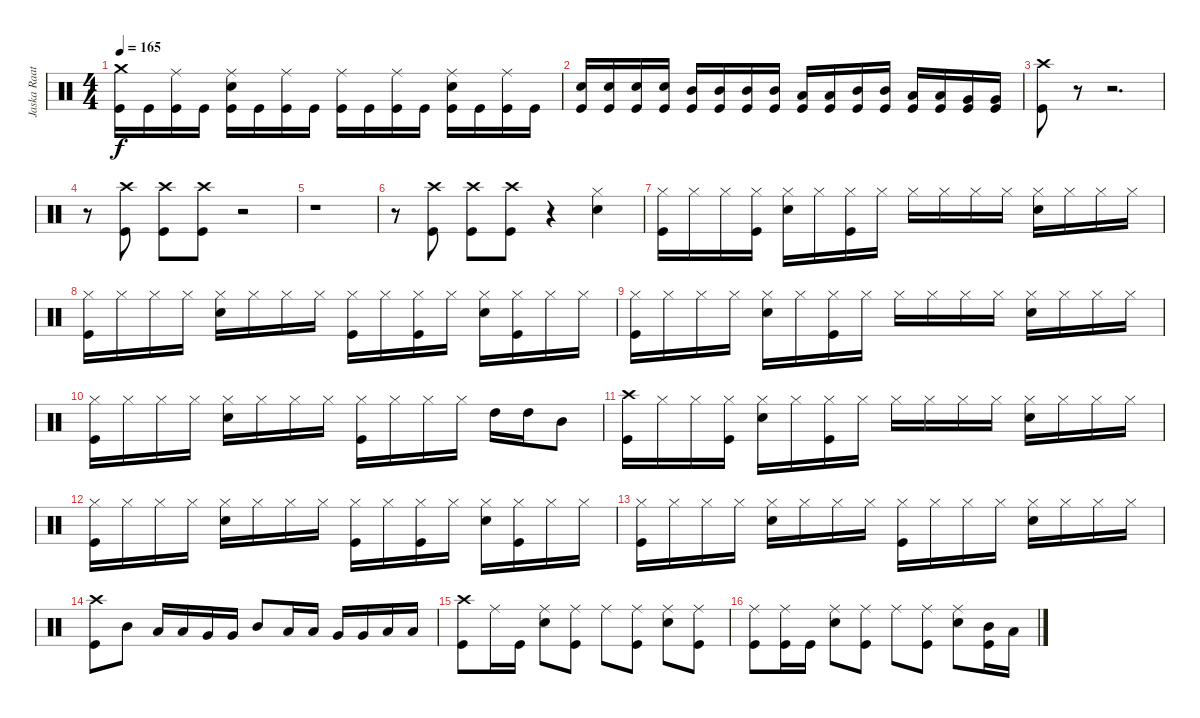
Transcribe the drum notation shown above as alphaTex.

\track ("Jaska Raatikainen" "Jaska Raat") {instrument percussion}
\staff {score}
\articulation defaults
\ts (4 4)
\tempo 165
\clef neutral
\ks c
("Crash medium (hit)" "Kick (hit)").16{dy f} "Kick (hit)".16 ("Ride (middle)" "Kick (hit)").16 "Kick (hit)".16 ("Ride (middle)" "Electric Snare (hit)" "Kick (hit)").16 "Kick (hit)".16 ("Ride (middle)" "Kick (hit)").16 "Kick (hit)".16 ("Ride (middle)" "Kick (hit)").16 "Kick (hit)".16 ("Ride (middle)" "Kick (hit)").16 "Kick (hit)".16 ("Ride (middle)" "Electric Snare (hit)" "Kick (hit)").16 "Kick (hit)".16 ("Ride (middle)" "Kick (hit)").16 "Kick (hit)".16 |
("Electric Snare (hit)" "Kick (hit)").16 ("Electric Snare (hit)" "Kick (hit)").16 ("Electric Snare (hit)" "Kick (hit)").16 ("Electric Snare (hit)" "Kick (hit)").16 ("Mid Tom (hit)" "Kick (hit)").16 ("Mid Tom (hit)" "Kick (hit)").16 ("Mid Tom (hit)" "Kick (hit)").16 ("Mid Tom (hit)" "Kick (hit)").16 ("Low Tom (hit)" "Kick (hit)").16 ("Low Tom (hit)" "Kick (hit)").16 ("Mid Tom (hit)" "Kick (hit)").16 ("Mid Tom (hit)" "Kick (hit)").16 ("Low Tom (hit)" "Kick (hit)").16 ("Low Tom (hit)" "Kick (hit)").16 ("Very Low Tom (hit)" "Kick (hit)").16 ("Very Low Tom (hit)" "Kick (hit)").16 |
("Crash high (hit)" "Kick (hit)").8 r.8 r.2{d} |
r.8 ("Crash high (hit)" "Kick (hit)").8 ("Crash high (hit)" "Kick (hit)").8 ("Crash high (hit)" "Kick (hit)").8 r.2 |
r.1 |
r.8 ("Crash high (hit)" "Kick (hit)").8 ("Crash high (hit)" "Kick (hit)").8 ("Crash high (hit)" "Kick (hit)").8 r.4 ("Hi-Hat (closed)" "Electric Snare (hit)").4 |
("Hi-Hat (closed)" "Kick (hit)").16 "Hi-Hat (closed)".16 "Hi-Hat (closed)".16 ("Hi-Hat (closed)" "Kick (hit)").16 ("Hi-Hat (closed)" "Electric Snare (hit)").16 "Hi-Hat (closed)".16 ("Hi-Hat (closed)" "Kick (hit)").16 "Hi-Hat (closed)".16 "Hi-Hat (closed)".16 "Hi-Hat (closed)".16 "Hi-Hat (closed)".16 "Hi-Hat (closed)".16 ("Hi-Hat (closed)" "Electric Snare (hit)").16 "Hi-Hat (closed)".16 "Hi-Hat (closed)".16 "Hi-Hat (closed)".16 |
("Hi-Hat (closed)" "Kick (hit)").16 "Hi-Hat (closed)".16 "Hi-Hat (closed)".16 "Hi-Hat (closed)".16 ("Hi-Hat (closed)" "Electric Snare (hit)").16 "Hi-Hat (closed)".16 "Hi-Hat (closed)".16 "Hi-Hat (closed)".16 ("Hi-Hat (closed)" "Kick (hit)").16 "Hi-Hat (closed)".16 ("Hi-Hat (closed)" "Kick (hit)").16 "Hi-Hat (closed)".16 ("Hi-Hat (closed)" "Electric Snare (hit)").16 ("Hi-Hat (closed)" "Kick (hit)").16 "Hi-Hat (closed)".16 "Hi-Hat (closed)".16 |
("Hi-Hat (closed)" "Kick (hit)").16 "Hi-Hat (closed)".16 "Hi-Hat (closed)".16 "Hi-Hat (closed)".16 ("Hi-Hat (closed)" "Electric Snare (hit)").16 "Hi-Hat (closed)".16 ("Hi-Hat (closed)" "Kick (hit)").16 "Hi-Hat (closed)".16 "Hi-Hat (closed)".16 "Hi-Hat (closed)".16 "Hi-Hat (closed)".16 "Hi-Hat (closed)".16 ("Hi-Hat (closed)" "Electric Snare (hit)").16 "Hi-Hat (closed)".16 "Hi-Hat (closed)".16 "Hi-Hat (closed)".16 |
("Hi-Hat (closed)" "Kick (hit)").16 "Hi-Hat (closed)".16 "Hi-Hat (closed)".16 "Hi-Hat (closed)".16 ("Hi-Hat (closed)" "Electric Snare (hit)").16 "Hi-Hat (closed)".16 "Hi-Hat (closed)".16 "Hi-Hat (closed)".16 ("Hi-Hat (closed)" "Kick (hit)").16 "Hi-Hat (closed)".16 "Hi-Hat (closed)".16 "Hi-Hat (closed)".16 "High Tom (hit)".16 "High Tom (hit)".16 "Mid Tom (hit)".8 |
("Crash high (hit)" "Kick (hit)").16 "Hi-Hat (closed)".16 "Hi-Hat (closed)".16 ("Hi-Hat (closed)" "Kick (hit)").16 ("Hi-Hat (closed)" "Electric Snare (hit)").16 "Hi-Hat (closed)".16 ("Hi-Hat (closed)" "Kick (hit)").16 "Hi-Hat (closed)".16 "Hi-Hat (closed)".16 "Hi-Hat (closed)".16 "Hi-Hat (closed)".16 "Hi-Hat (closed)".16 ("Hi-Hat (closed)" "Electric Snare (hit)").16 "Hi-Hat (closed)".16 "Hi-Hat (closed)".16 "Hi-Hat (closed)".16 |
("Hi-Hat (closed)" "Kick (hit)").16 "Hi-Hat (closed)".16 "Hi-Hat (closed)".16 "Hi-Hat (closed)".16 ("Hi-Hat (closed)" "Electric Snare (hit)").16 "Hi-Hat (closed)".16 "Hi-Hat (closed)".16 "Hi-Hat (closed)".16 ("Hi-Hat (closed)" "Kick (hit)").16 "Hi-Hat (closed)".16 ("Hi-Hat (closed)" "Kick (hit)").16 "Hi-Hat (closed)".16 ("Hi-Hat (closed)" "Electric Snare (hit)").16 ("Hi-Hat (closed)" "Kick (hit)").16 "Hi-Hat (closed)".16 "Hi-Hat (closed)".16 |
("Hi-Hat (closed)" "Kick (hit)").16 "Hi-Hat (closed)".16 "Hi-Hat (closed)".16 "Hi-Hat (closed)".16 ("Hi-Hat (closed)" "Electric Snare (hit)").16 "Hi-Hat (closed)".16 "Hi-Hat (closed)".16 "Hi-Hat (closed)".16 ("Hi-Hat (closed)" "Kick (hit)").16 "Hi-Hat (closed)".16 "Hi-Hat (closed)".16 "Hi-Hat (closed)".16 ("Hi-Hat (closed)" "Electric Snare (hit)").16 "Hi-Hat (closed)".16 "Hi-Hat (closed)".16 "Hi-Hat (closed)".16 |
("Crash high (hit)" "Kick (hit)").8 "Mid Tom (hit)".8 "Low Tom (hit)".16 "Low Tom (hit)".16 "Very Low Tom (hit)".16 "Very Low Tom (hit)".16 "Mid Tom (hit)".8 "Low Tom (hit)".16 "Low Tom (hit)".16 "Very Low Tom (hit)".16 "Very Low Tom (hit)".16 "Low Floor Tom (hit)".16 "Low Floor Tom (hit)".16 |
("Crash high (hit)" "Kick (hit)").8 "Ride (middle)".16 "Kick (hit)".16 ("Ride (middle)" "Electric Snare (hit)").8 ("Ride (middle)" "Kick (hit)").8 "Ride (middle)".8 ("Ride (middle)" "Kick (hit)").8 ("Ride (middle)" "Electric Snare (hit)").8 ("Ride (middle)" "Kick (hit)").8 |
("Ride (middle)" "Kick (hit)").8 ("Ride (middle)" "Kick (hit)").16 "Kick (hit)".16 ("Ride (middle)" "Electric Snare (hit)").8 ("Ride (middle)" "Kick (hit)").8 "Ride (middle)".8 ("Ride (middle)" "Kick (hit)").8 ("Ride (middle)" "Electric Snare (hit)").8 ("Mid Tom (hit)" "Kick (hit)").16 "Low Tom (hit)".16
